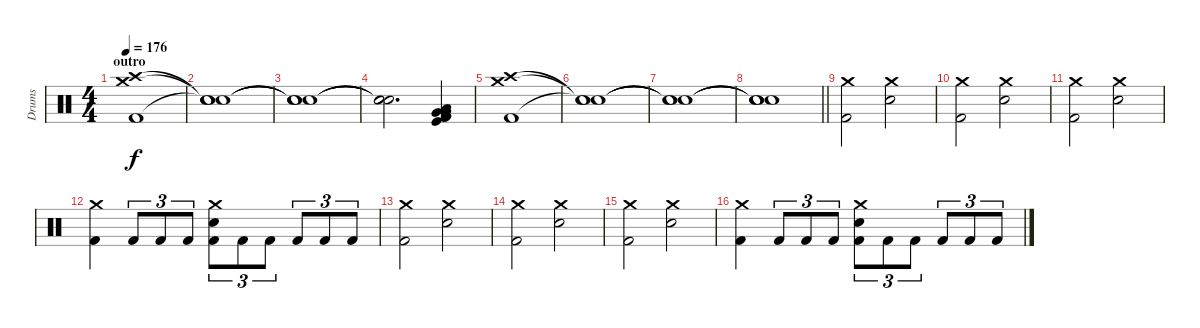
\track ("Drums" "Drums") {instrument percussion}
\staff {score}
\articulation defaults
\ts (4 4)
\section ("" "outro")
\tempo 176
\clef neutral
\ks c
("Crash medium (hit)" "Crash high (hit)" "Kick (hit) 2").1{dy f} |
("Snare (hit)"{t} "Snare (hit)"{t} "Snare (hit)"{t}).1 |
("Snare (hit)"{t} "Snare (hit)"{t} "Snare (hit)"{t}).1 |
("Snare (hit)"{t} "Snare (hit)"{t} "Snare (hit)"{t}).2{d} ("Kick (hit) 2" "Kick (hit)" "Very Low Tom (hit)" "Very Low Tom (hit)" "Low Tom (hit)" "Kick (hit) 2").4 |
("Crash medium (hit)" "Crash high (hit)" "Kick (hit) 2").1 |
("Snare (hit)"{t} "Snare (hit)"{t} "Snare (hit)"{t}).1 |
("Snare (hit)"{t} "Snare (hit)"{t} "Snare (hit)"{t}).1 |
\barLineRight lightlight
("Snare (hit)"{t} "Snare (hit)"{t} "Snare (hit)"{t}).1 |
("Crash medium (hit)" "Kick (hit) 2").2 ("Crash medium (hit)" "Electric Snare (hit)").2 |
("Crash medium (hit)" "Kick (hit) 2").2 ("Crash medium (hit)" "Electric Snare (hit)").2 |
("Crash medium (hit)" "Kick (hit) 2").2 ("Crash medium (hit)" "Electric Snare (hit)").2 |
("Crash medium (hit)" "Kick (hit) 2").4 "Kick (hit) 2".8{tu (3 2)} "Kick (hit) 2".8{tu (3 2)} "Kick (hit) 2".8{tu (3 2)} ("Crash medium (hit)" "Electric Snare (hit)" "Kick (hit) 2").8{tu (3 2)} "Kick (hit) 2".8{tu (3 2)} "Kick (hit) 2".8{tu (3 2)} "Kick (hit) 2".8{tu (3 2)} "Kick (hit) 2".8{tu (3 2)} "Kick (hit) 2".8{tu (3 2)} |
("Crash medium (hit)" "Kick (hit) 2").2 ("Crash medium (hit)" "Electric Snare (hit)").2 |
("Crash medium (hit)" "Kick (hit) 2").2 ("Crash medium (hit)" "Electric Snare (hit)").2 |
("Crash medium (hit)" "Kick (hit) 2").2 ("Crash medium (hit)" "Electric Snare (hit)").2 |
("Crash medium (hit)" "Kick (hit) 2").4 "Kick (hit) 2".8{tu (3 2)} "Kick (hit) 2".8{tu (3 2)} "Kick (hit) 2".8{tu (3 2)} ("Crash medium (hit)" "Electric Snare (hit)" "Kick (hit) 2").8{tu (3 2)} "Kick (hit) 2".8{tu (3 2)} "Kick (hit) 2".8{tu (3 2)} "Kick (hit) 2".8{tu (3 2)} "Kick (hit) 2".8{tu (3 2)} "Kick (hit) 2".8{tu (3 2)}
